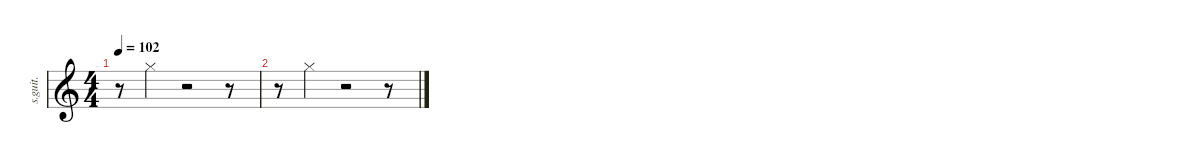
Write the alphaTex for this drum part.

\defaultSystemsLayout 4
\hideDynamics
\bracketExtendMode nobrackets
\track ("Hi Hat" "s.guit.") {instrument percussion}
\staff {score}
\articulation defaults
\ts (4 4)
\tempo 102
\clef g2
\ks c
r.8{dy f} "Hi-Hat (closed)".4 r.2 r.8 |
r.8 "Hi-Hat (closed)".4 r.2 r.8
